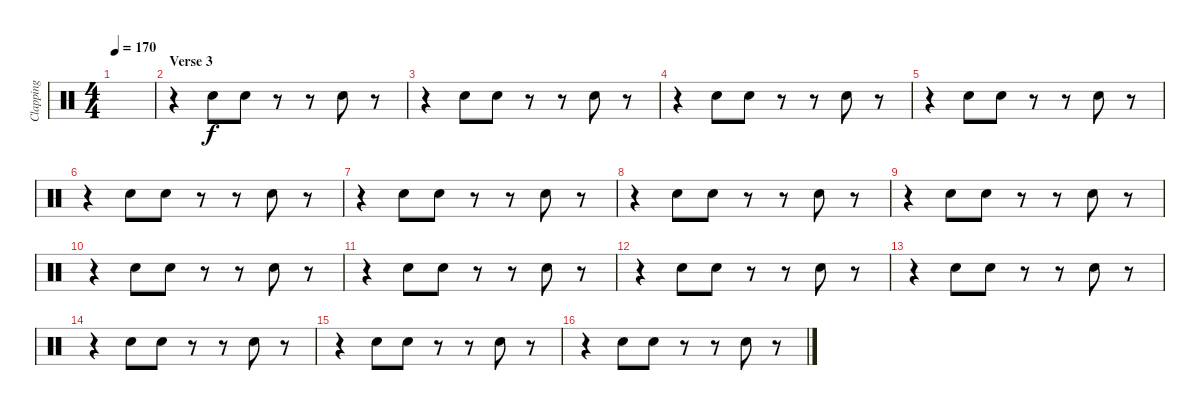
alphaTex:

\track ("Clapping" "Clapping") {instrument percussion}
\staff {score}
\articulation defaults
\ts (4 4)
\tempo 170
\clef neutral
\ks c
|
\section ("" "Verse 3")
r.4 "Hand Clap (hit)".8 "Hand Clap (hit)".8 r.8 r.8 "Hand Clap (hit)".8 r.8 |
r.4 "Hand Clap (hit)".8 "Hand Clap (hit)".8 r.8 r.8 "Hand Clap (hit)".8 r.8 |
r.4 "Hand Clap (hit)".8 "Hand Clap (hit)".8 r.8 r.8 "Hand Clap (hit)".8 r.8 |
r.4 "Hand Clap (hit)".8 "Hand Clap (hit)".8 r.8 r.8 "Hand Clap (hit)".8 r.8 |
r.4 "Hand Clap (hit)".8 "Hand Clap (hit)".8 r.8 r.8 "Hand Clap (hit)".8 r.8 |
r.4 "Hand Clap (hit)".8 "Hand Clap (hit)".8 r.8 r.8 "Hand Clap (hit)".8 r.8 |
r.4 "Hand Clap (hit)".8 "Hand Clap (hit)".8 r.8 r.8 "Hand Clap (hit)".8 r.8 |
r.4 "Hand Clap (hit)".8 "Hand Clap (hit)".8 r.8 r.8 "Hand Clap (hit)".8 r.8 |
r.4 "Hand Clap (hit)".8 "Hand Clap (hit)".8 r.8 r.8 "Hand Clap (hit)".8 r.8 |
r.4 "Hand Clap (hit)".8 "Hand Clap (hit)".8 r.8 r.8 "Hand Clap (hit)".8 r.8 |
r.4 "Hand Clap (hit)".8 "Hand Clap (hit)".8 r.8 r.8 "Hand Clap (hit)".8 r.8 |
r.4 "Hand Clap (hit)".8 "Hand Clap (hit)".8 r.8 r.8 "Hand Clap (hit)".8 r.8 |
r.4 "Hand Clap (hit)".8 "Hand Clap (hit)".8 r.8 r.8 "Hand Clap (hit)".8 r.8 |
r.4 "Hand Clap (hit)".8 "Hand Clap (hit)".8 r.8 r.8 "Hand Clap (hit)".8 r.8 |
r.4 "Hand Clap (hit)".8 "Hand Clap (hit)".8 r.8 r.8 "Hand Clap (hit)".8 r.8
